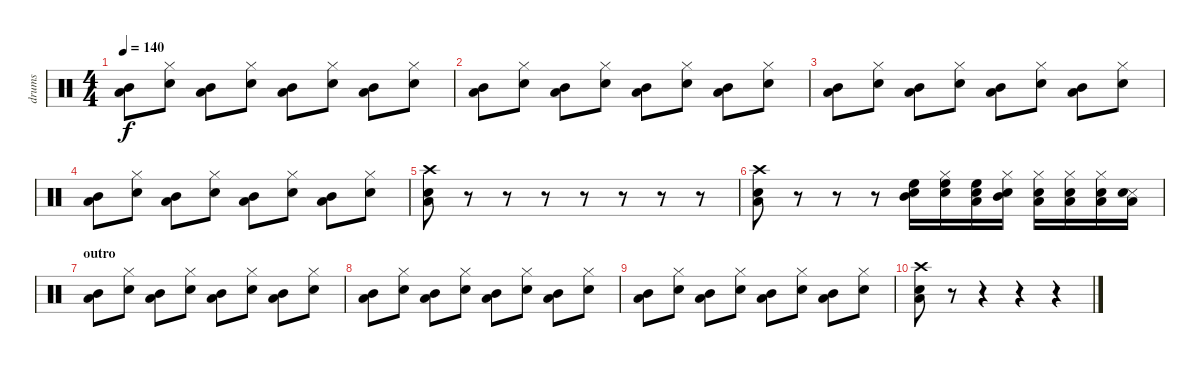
\track ("drums" "drums") {instrument percussion}
\staff {score}
\articulation defaults
\ts (4 4)
\tempo 140
\clef neutral
\ks c
("Low Floor Tom (hit)" "Mid Tom (hit)").8{dy f} ("Hi-Hat (closed)" "Snare (hit) 2").8 ("Mid Tom (hit)" "Low Floor Tom (hit)").8 ("Snare (hit) 2" "Hi-Hat (closed)").8 ("Mid Tom (hit)" "Low Floor Tom (hit)").8 ("Hi-Hat (closed)" "Snare (hit) 2").8 ("Mid Tom (hit)" "Low Floor Tom (hit)").8 ("Hi-Hat (closed)" "Snare (hit) 2").8 |
("Low Floor Tom (hit)" "Mid Tom (hit)").8 ("Hi-Hat (closed)" "Snare (hit) 2").8 ("Mid Tom (hit)" "Low Floor Tom (hit)").8 ("Snare (hit) 2" "Hi-Hat (closed)").8 ("Mid Tom (hit)" "Low Floor Tom (hit)").8 ("Hi-Hat (closed)" "Snare (hit) 2").8 ("Mid Tom (hit)" "Low Floor Tom (hit)").8 ("Hi-Hat (closed)" "Snare (hit) 2").8 |
("Low Floor Tom (hit)" "Mid Tom (hit)").8 ("Hi-Hat (closed)" "Snare (hit) 2").8 ("Mid Tom (hit)" "Low Floor Tom (hit)").8 ("Snare (hit) 2" "Hi-Hat (closed)").8 ("Mid Tom (hit)" "Low Floor Tom (hit)").8 ("Hi-Hat (closed)" "Snare (hit) 2").8 ("Mid Tom (hit)" "Low Floor Tom (hit)").8 ("Hi-Hat (closed)" "Snare (hit) 2").8 |
("Low Floor Tom (hit)" "Mid Tom (hit)").8 ("Hi-Hat (closed)" "Snare (hit) 2").8 ("Mid Tom (hit)" "Low Floor Tom (hit)").8 ("Snare (hit) 2" "Hi-Hat (closed)").8 ("Mid Tom (hit)" "Low Floor Tom (hit)").8 ("Hi-Hat (closed)" "Snare (hit) 2").8 ("Mid Tom (hit)" "Low Floor Tom (hit)").8 ("Hi-Hat (closed)" "Snare (hit) 2").8 |
("Low Tom (hit)" "Snare (hit) 2" "Crash high (hit)").8 r.8 r.8 r.8 r.8 r.8 r.8 r.8 |
("Crash high (hit)" "Snare (hit) 2" "Low Tom (hit)").8 r.8 r.8 r.8 ("High Floor Tom (hit)" "Mid Tom (hit)" "Snare (hit) 2").16 ("Hi-Hat (closed)" "Snare (hit) 2" "High Floor Tom (hit)").16 ("Snare (hit) 2" "High Floor Tom (hit)" "Low Floor Tom (hit)").16 ("Snare (hit) 2" "Mid Tom (hit)" "Hi-Hat (closed)").16 ("Snare (hit) 2" "Low Tom (hit)" "Hi-Hat (closed)").16 ("Snare (hit) 2" "Low Floor Tom (hit)" "Hi-Hat (closed)").16 ("Snare (hit) 2" "Low Floor Tom (hit)" "Hi-Hat (closed)").16 ("Low Tom (hit)" "Snare (side stick) 3" "Snare (hit) 2").16 |
\section ("" "outro")
("Low Floor Tom (hit)" "Mid Tom (hit)").8 ("Hi-Hat (closed)" "Snare (hit) 2").8 ("Mid Tom (hit)" "Low Floor Tom (hit)").8 ("Snare (hit) 2" "Hi-Hat (closed)").8 ("Mid Tom (hit)" "Low Floor Tom (hit)").8 ("Hi-Hat (closed)" "Snare (hit) 2").8 ("Mid Tom (hit)" "Low Floor Tom (hit)").8 ("Hi-Hat (closed)" "Snare (hit) 2").8 |
("Low Floor Tom (hit)" "Mid Tom (hit)").8 ("Hi-Hat (closed)" "Snare (hit) 2").8 ("Mid Tom (hit)" "Low Floor Tom (hit)").8 ("Snare (hit) 2" "Hi-Hat (closed)").8 ("Mid Tom (hit)" "Low Floor Tom (hit)").8 ("Hi-Hat (closed)" "Snare (hit) 2").8 ("Mid Tom (hit)" "Low Floor Tom (hit)").8 ("Hi-Hat (closed)" "Snare (hit) 2").8 |
("Low Floor Tom (hit)" "Mid Tom (hit)").8 ("Hi-Hat (closed)" "Snare (hit) 2").8 ("Mid Tom (hit)" "Low Floor Tom (hit)").8 ("Snare (hit) 2" "Hi-Hat (closed)").8 ("Mid Tom (hit)" "Low Floor Tom (hit)").8 ("Hi-Hat (closed)" "Snare (hit) 2").8 ("Mid Tom (hit)" "Low Floor Tom (hit)").8 ("Hi-Hat (closed)" "Snare (hit) 2").8 |
("Snare (hit) 2" "Low Floor Tom (hit)" "Crash high (hit)").8 r.8 r.4 r.4 r.4
